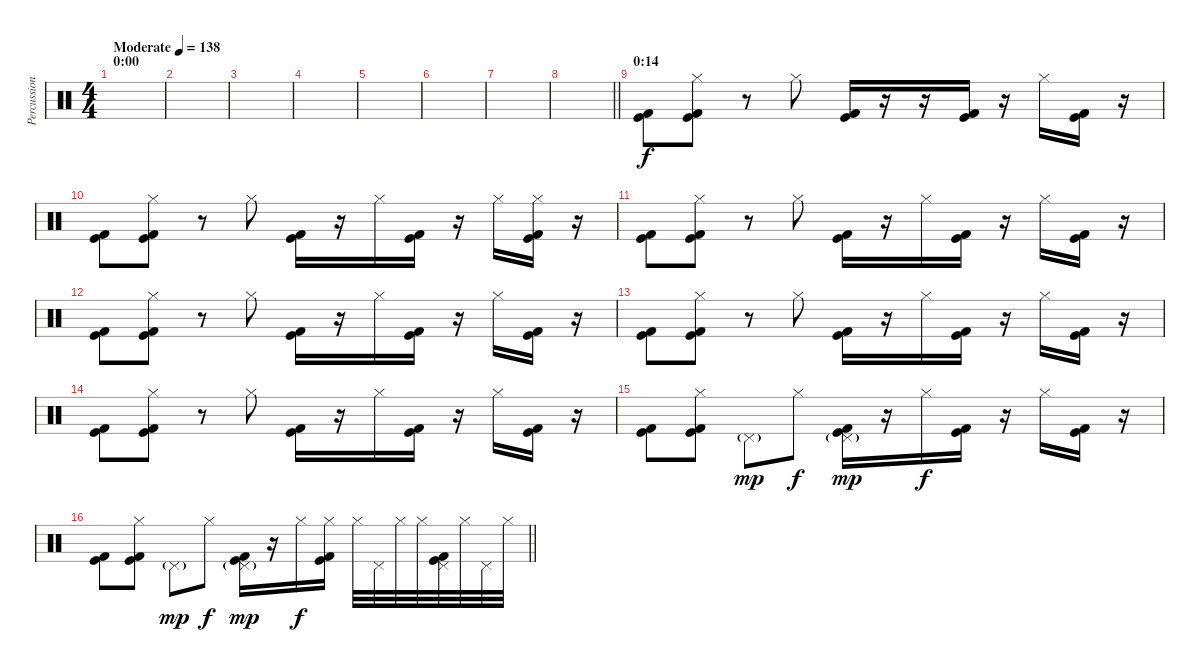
\track ("Percussion" "Percussion") {instrument percussion}
\staff {score}
\articulation defaults
\ts (4 4)
\section ("" "0:00")
\tempo (138 "Moderate")
\clef neutral
\ks c
|
|
|
|
|
|
|
\barLineRight lightlight
|
\section ("" "0:14")
("Kick (hit)" "Kick (hit) 2").8 ("Hi-Hat (closed)" "Kick (hit)" "Kick (hit) 2").8 r.8 "Hi-Hat (closed)".8 ("Kick (hit)" "Kick (hit) 2").16 r.16 r.16 ("Kick (hit)" "Kick (hit) 2").16 r.16 "Hi-Hat (closed)".16 ("Kick (hit)" "Kick (hit) 2").16 r.16 |
("Kick (hit)" "Kick (hit) 2").8 ("Hi-Hat (closed)" "Kick (hit)" "Kick (hit) 2").8 r.8 "Hi-Hat (closed)".8 ("Kick (hit)" "Kick (hit) 2").16 r.16 "Hi-Hat (closed)".16 ("Kick (hit)" "Kick (hit) 2").16 r.16 "Hi-Hat (closed)".16 ("Hi-Hat (closed)" "Kick (hit)" "Kick (hit) 2").16 r.16 |
("Kick (hit)" "Kick (hit) 2").8 ("Hi-Hat (closed)" "Kick (hit)" "Kick (hit) 2").8 r.8 "Hi-Hat (closed)".8 ("Kick (hit)" "Kick (hit) 2").16 r.16 "Hi-Hat (closed)".16 ("Kick (hit)" "Kick (hit) 2").16 r.16 "Hi-Hat (closed)".16 ("Kick (hit)" "Kick (hit) 2").16 r.16 |
("Kick (hit)" "Kick (hit) 2").8 ("Hi-Hat (closed)" "Kick (hit)" "Kick (hit) 2").8 r.8 "Hi-Hat (closed)".8 ("Kick (hit)" "Kick (hit) 2").16 r.16 "Hi-Hat (closed)".16 ("Kick (hit)" "Kick (hit) 2").16 r.16 "Hi-Hat (closed)".16 ("Kick (hit)" "Kick (hit) 2").16 r.16 |
("Kick (hit)" "Kick (hit) 2").8 ("Hi-Hat (closed)" "Kick (hit)" "Kick (hit) 2").8 r.8 "Hi-Hat (closed)".8 ("Kick (hit)" "Kick (hit) 2").16 r.16 "Hi-Hat (closed)".16 ("Kick (hit)" "Kick (hit) 2").16 r.16 "Hi-Hat (closed)".16 ("Kick (hit)" "Kick (hit) 2").16 r.16 |
("Kick (hit)" "Kick (hit) 2").8 ("Hi-Hat (closed)" "Kick (hit)" "Kick (hit) 2").8 r.8 "Hi-Hat (closed)".8 ("Kick (hit)" "Kick (hit) 2").16 r.16 "Hi-Hat (closed)".16 ("Kick (hit)" "Kick (hit) 2").16 r.16 "Hi-Hat (closed)".16 ("Kick (hit)" "Kick (hit) 2").16 r.16 |
("Kick (hit)" "Kick (hit) 2").8 ("Hi-Hat (closed)" "Kick (hit)" "Kick (hit) 2").8 "Pedal Hi-Hat (hit)"{g}.8{dy mp} "Hi-Hat (closed)".8{dy f} ("Pedal Hi-Hat (hit)"{g} "Kick (hit)" "Kick (hit) 2").16{dy mp} r.16 "Hi-Hat (closed)".16{dy f} ("Kick (hit)" "Kick (hit) 2").16 r.16 "Hi-Hat (closed)".16 ("Kick (hit)" "Kick (hit) 2").16 r.16 |
\barLineRight lightlight
("Kick (hit)" "Kick (hit) 2").8 ("Hi-Hat (closed)" "Kick (hit)" "Kick (hit) 2").8 "Pedal Hi-Hat (hit)"{g}.8{dy mp} "Hi-Hat (closed)".8{dy f} ("Pedal Hi-Hat (hit)"{g} "Kick (hit)" "Kick (hit) 2").16{dy mp} r.16 "Hi-Hat (closed)".16{dy f} ("Hi-Hat (closed)" "Kick (hit)" "Kick (hit) 2").16 "Hi-Hat (closed)".32 "Pedal Hi-Hat (hit)".32 "Hi-Hat (closed)".32 "Hi-Hat (closed)".32 ("Pedal Hi-Hat (hit)" "Kick (hit)" "Kick (hit) 2").32 "Hi-Hat (closed)".32 "Pedal Hi-Hat (hit)".32 "Hi-Hat (closed)".32
